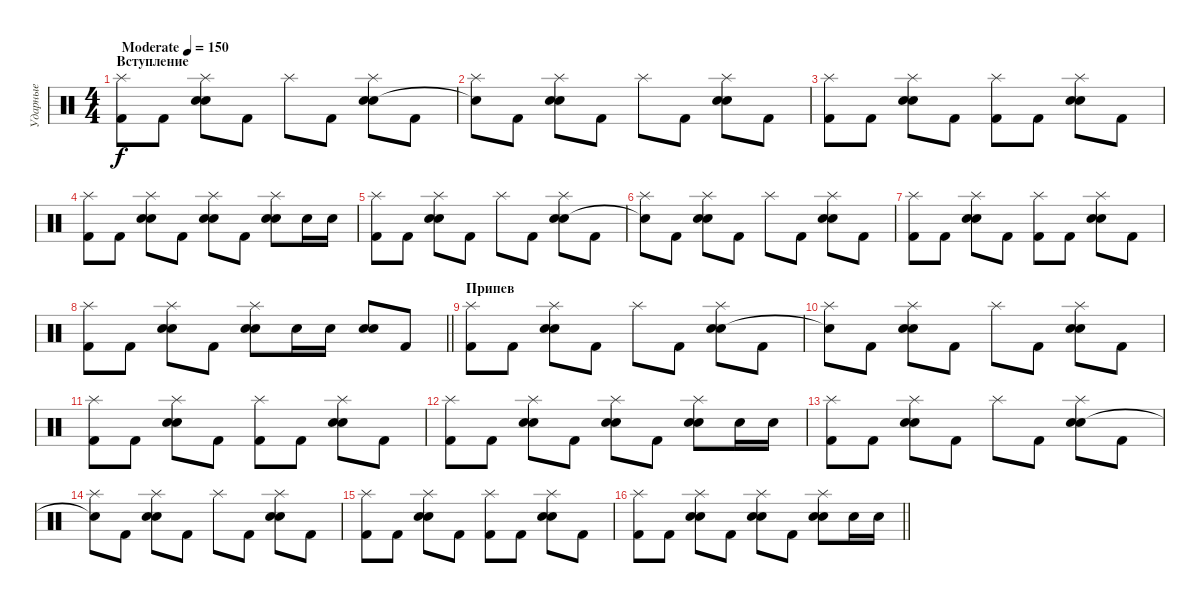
\track ("Ударные" "Ударные") {instrument percussion}
\staff {score}
\articulation defaults
\ts (4 4)
\section ("" "Вступление")
\tempo (150 "Moderate")
\clef neutral
\ks c
("Splash (hit)" "Kick (hit) 2").8{dy f volume 5} "Kick (hit) 2".8 ("Splash (hit)" "Electric Snare (hit)" "Snare (hit) 2").8 "Kick (hit) 2".8 "Splash (hit)".8 "Kick (hit) 2".8 ("Splash (hit)" "Electric Snare (hit)" "Snare (hit) 2").8 "Kick (hit) 2".8 |
("Splash (hit)" "Snare (hit)"{t}).8 "Kick (hit) 2".8 ("Splash (hit)" "Electric Snare (hit)" "Snare (hit) 2").8 "Kick (hit) 2".8 "Splash (hit)".8 "Kick (hit) 2".8 ("Splash (hit)" "Electric Snare (hit)" "Snare (hit) 2").8 "Kick (hit) 2".8 |
("Splash (hit)" "Kick (hit) 2").8 "Kick (hit) 2".8 ("Splash (hit)" "Electric Snare (hit)" "Snare (hit) 2").8 "Kick (hit) 2".8 ("Splash (hit)" "Kick (hit) 2").8 "Kick (hit) 2".8 ("Splash (hit)" "Electric Snare (hit)" "Snare (hit) 2").8 "Kick (hit) 2".8 |
("Splash (hit)" "Kick (hit) 2").8 "Kick (hit) 2".8 ("Splash (hit)" "Electric Snare (hit)" "Snare (hit) 2").8 "Kick (hit) 2".8 ("Splash (hit)" "Electric Snare (hit)" "Snare (hit) 2").8 "Kick (hit) 2".8 ("Splash (hit)" "Electric Snare (hit)" "Snare (hit) 2").8 "Electric Snare (hit)".16 "Electric Snare (hit)".16 |
("Splash (hit)" "Kick (hit) 2").8 "Kick (hit) 2".8 ("Splash (hit)" "Electric Snare (hit)" "Snare (hit) 2").8 "Kick (hit) 2".8 "Splash (hit)".8 "Kick (hit) 2".8 ("Splash (hit)" "Electric Snare (hit)" "Snare (hit) 2").8 "Kick (hit) 2".8 |
("Splash (hit)" "Snare (hit)"{t}).8 "Kick (hit) 2".8 ("Splash (hit)" "Electric Snare (hit)" "Snare (hit) 2").8 "Kick (hit) 2".8 "Splash (hit)".8 "Kick (hit) 2".8 ("Splash (hit)" "Electric Snare (hit)" "Snare (hit) 2").8 "Kick (hit) 2".8 |
("Splash (hit)" "Kick (hit) 2").8 "Kick (hit) 2".8 ("Splash (hit)" "Electric Snare (hit)" "Snare (hit) 2").8 "Kick (hit) 2".8 ("Splash (hit)" "Kick (hit) 2").8 "Kick (hit) 2".8 ("Splash (hit)" "Electric Snare (hit)" "Snare (hit) 2").8 "Kick (hit) 2".8 |
\barLineRight lightlight
("Splash (hit)" "Kick (hit) 2").8 "Kick (hit) 2".8 ("Splash (hit)" "Electric Snare (hit)" "Snare (hit) 2").8 "Kick (hit) 2".8 ("Splash (hit)" "Electric Snare (hit)" "Snare (hit) 2").8 "Electric Snare (hit)".16{volume 13} "Electric Snare (hit)".16 ("Electric Snare (hit)" "Snare (hit) 2").8 "Kick (hit) 2".8 |
\section ("" "Припев")
("Splash (hit)" "Kick (hit) 2").8 "Kick (hit) 2".8 ("Splash (hit)" "Electric Snare (hit)" "Snare (hit) 2").8 "Kick (hit) 2".8 "Splash (hit)".8 "Kick (hit) 2".8 ("Splash (hit)" "Electric Snare (hit)" "Snare (hit) 2").8 "Kick (hit) 2".8 |
("Splash (hit)" "Snare (hit)"{t}).8 "Kick (hit) 2".8 ("Splash (hit)" "Electric Snare (hit)" "Snare (hit) 2").8 "Kick (hit) 2".8 "Splash (hit)".8 "Kick (hit) 2".8 ("Splash (hit)" "Electric Snare (hit)" "Snare (hit) 2").8 "Kick (hit) 2".8 |
("Splash (hit)" "Kick (hit) 2").8 "Kick (hit) 2".8 ("Splash (hit)" "Electric Snare (hit)" "Snare (hit) 2").8 "Kick (hit) 2".8 ("Splash (hit)" "Kick (hit) 2").8 "Kick (hit) 2".8 ("Splash (hit)" "Electric Snare (hit)" "Snare (hit) 2").8 "Kick (hit) 2".8 |
("Splash (hit)" "Kick (hit) 2").8 "Kick (hit) 2".8 ("Splash (hit)" "Electric Snare (hit)" "Snare (hit) 2").8 "Kick (hit) 2".8 ("Splash (hit)" "Electric Snare (hit)" "Snare (hit) 2").8 "Kick (hit) 2".8 ("Splash (hit)" "Electric Snare (hit)" "Snare (hit) 2").8 "Electric Snare (hit)".16 "Electric Snare (hit)".16 |
("Splash (hit)" "Kick (hit) 2").8 "Kick (hit) 2".8 ("Splash (hit)" "Electric Snare (hit)" "Snare (hit) 2").8 "Kick (hit) 2".8 "Splash (hit)".8 "Kick (hit) 2".8 ("Splash (hit)" "Electric Snare (hit)" "Snare (hit) 2").8 "Kick (hit) 2".8 |
("Splash (hit)" "Snare (hit)"{t}).8 "Kick (hit) 2".8 ("Splash (hit)" "Electric Snare (hit)" "Snare (hit) 2").8 "Kick (hit) 2".8 "Splash (hit)".8 "Kick (hit) 2".8 ("Splash (hit)" "Electric Snare (hit)" "Snare (hit) 2").8 "Kick (hit) 2".8 |
("Splash (hit)" "Kick (hit) 2").8 "Kick (hit) 2".8 ("Splash (hit)" "Electric Snare (hit)" "Snare (hit) 2").8 "Kick (hit) 2".8 ("Splash (hit)" "Kick (hit) 2").8 "Kick (hit) 2".8 ("Splash (hit)" "Electric Snare (hit)" "Snare (hit) 2").8 "Kick (hit) 2".8 |
\barLineRight lightlight
("Splash (hit)" "Kick (hit) 2").8 "Kick (hit) 2".8 ("Splash (hit)" "Electric Snare (hit)" "Snare (hit) 2").8 "Kick (hit) 2".8 ("Splash (hit)" "Electric Snare (hit)" "Snare (hit) 2").8 "Kick (hit) 2".8 ("Splash (hit)" "Electric Snare (hit)" "Snare (hit) 2").8 "Electric Snare (hit)".16 "Electric Snare (hit)".16
